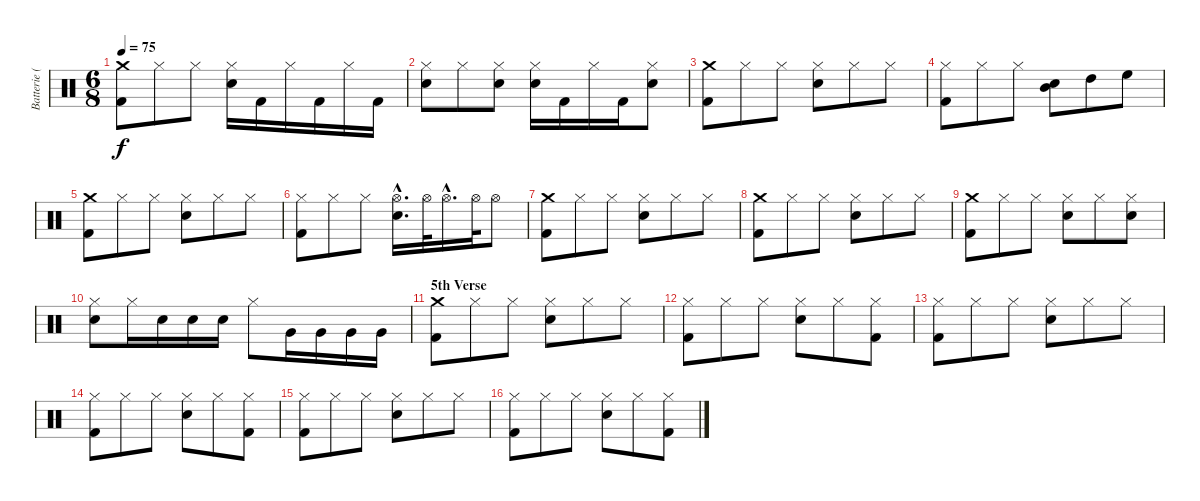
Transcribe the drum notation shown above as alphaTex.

\track ("Batterie ( Lars Ulrich )" "Batterie (") {instrument percussion}
\staff {score}
\articulation defaults
\ts (6 8)
\tempo 75
\clef neutral
\ks c
("Kick (hit) 2" "Crash medium (hit)").8{dy f} "Hi-Hat (closed)".8 "Hi-Hat (closed)".8 ("Snare (hit) 2" "Hi-Hat (closed)").16 "Kick (hit) 2".16 "Hi-Hat (closed)".16 "Kick (hit) 2".16 "Hi-Hat (closed)".16 "Kick (hit) 2".16 |
("Snare (hit) 2" "Hi-Hat (closed)").8 "Hi-Hat (closed)".8 ("Snare (hit) 2" "Hi-Hat (closed)").8 ("Snare (hit) 2" "Hi-Hat (closed)").16 "Kick (hit) 2".16 "Hi-Hat (closed)".16 "Kick (hit) 2".16 ("Snare (hit) 2" "Hi-Hat (closed)").8 |
("Kick (hit) 2" "Crash medium (hit)").8 "Hi-Hat (closed)".8 "Hi-Hat (closed)".8 ("Snare (hit) 2" "Hi-Hat (closed)").8 "Hi-Hat (closed)".8 "Hi-Hat (closed)".8 |
("Kick (hit) 2" "Hi-Hat (closed)").8 "Hi-Hat (closed)".8 "Hi-Hat (closed)".8 ("Snare (hit) 2" "Mid Tom (hit)").8 "High Tom (hit)".8 "High Floor Tom (hit)".8 |
("Kick (hit) 2" "Crash medium (hit)").8 "Hi-Hat (closed)".8 "Hi-Hat (closed)".8 ("Snare (hit) 2" "Hi-Hat (closed)").8 "Hi-Hat (closed)".8 "Hi-Hat (closed)".8 |
("Kick (hit) 2" "Hi-Hat (closed)").8 "Hi-Hat (closed)".8 "Hi-Hat (closed)".8 ("Snare (hit) 2"{hac} "Hi-Hat (open)"{hac}).16{d} "Hi-Hat (open)".32 "Hi-Hat (open)"{hac}.16{d} "Hi-Hat (open)".32 "Hi-Hat (open)".8 |
("Kick (hit) 2" "Crash medium (hit)").8 "Hi-Hat (closed)".8 "Hi-Hat (closed)".8 ("Snare (hit) 2" "Hi-Hat (closed)").8 "Hi-Hat (closed)".8 "Hi-Hat (closed)".8 |
("Kick (hit) 2" "Crash medium (hit)").8 "Hi-Hat (closed)".8 "Hi-Hat (closed)".8 ("Snare (hit) 2" "Hi-Hat (closed)").8 "Hi-Hat (closed)".8 "Hi-Hat (closed)".8 |
("Kick (hit) 2" "Crash medium (hit)").8 "Hi-Hat (closed)".8 "Hi-Hat (closed)".8 ("Snare (hit) 2" "Hi-Hat (closed)").8 "Hi-Hat (closed)".8 ("Snare (hit) 2" "Hi-Hat (closed)").8 |
("Snare (hit) 2" "Hi-Hat (closed)").8 "Hi-Hat (closed)".16 "Snare (hit) 2".16 "Snare (hit) 2".16 "Snare (hit) 2".16 "Hi-Hat (closed)".8 "Very Low Tom (hit)".16 "Very Low Tom (hit)".16 "Very Low Tom (hit)".16 "Very Low Tom (hit)".16 |
\section ("" "5th Verse")
("Kick (hit) 2" "Crash medium (hit)").8 "Hi-Hat (closed)".8 "Hi-Hat (closed)".8 ("Snare (hit) 2" "Hi-Hat (closed)").8 "Hi-Hat (closed)".8 "Hi-Hat (closed)".8 |
("Kick (hit) 2" "Hi-Hat (closed)").8 "Hi-Hat (closed)".8 "Hi-Hat (closed)".8 ("Snare (hit) 2" "Hi-Hat (closed)").8 "Hi-Hat (closed)".8 ("Kick (hit) 2" "Hi-Hat (closed)").8 |
("Kick (hit) 2" "Hi-Hat (closed)").8 "Hi-Hat (closed)".8 "Hi-Hat (closed)".8 ("Snare (hit) 2" "Hi-Hat (closed)").8 "Hi-Hat (closed)".8 "Hi-Hat (closed)".8 |
("Kick (hit) 2" "Hi-Hat (closed)").8 "Hi-Hat (closed)".8 "Hi-Hat (closed)".8 ("Snare (hit) 2" "Hi-Hat (closed)").8 "Hi-Hat (closed)".8 ("Kick (hit) 2" "Hi-Hat (closed)").8 |
("Kick (hit) 2" "Hi-Hat (closed)").8 "Hi-Hat (closed)".8 "Hi-Hat (closed)".8 ("Snare (hit) 2" "Hi-Hat (closed)").8 "Hi-Hat (closed)".8 "Hi-Hat (closed)".8 |
("Kick (hit) 2" "Hi-Hat (closed)").8 "Hi-Hat (closed)".8 "Hi-Hat (closed)".8 ("Snare (hit) 2" "Hi-Hat (closed)").8 "Hi-Hat (closed)".8 ("Kick (hit) 2" "Hi-Hat (closed)").8
